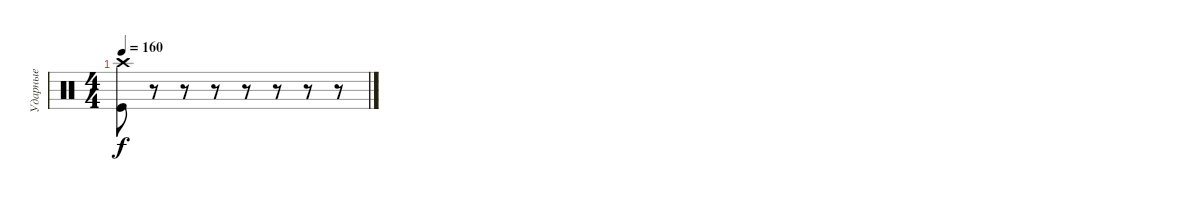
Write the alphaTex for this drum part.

\track ("Ударные" "Ударные") {instrument percussion}
\staff {score}
\articulation defaults
\ts (4 4)
\tempo 160
\clef neutral
\ks c
("Crash high (hit)" "Kick (hit)").8{dy f} r.8 r.8 r.8 r.8 r.8 r.8 r.8
